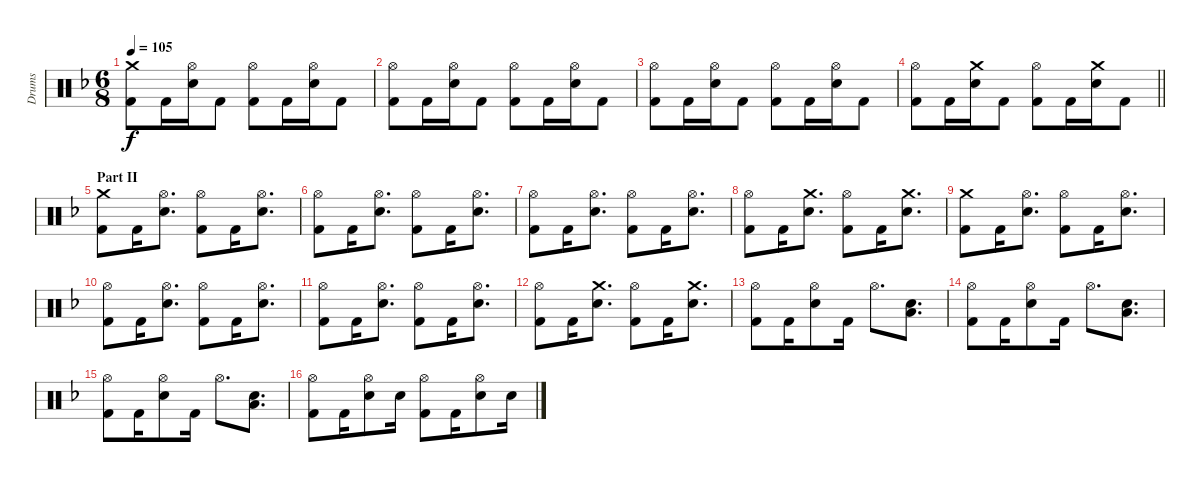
\track ("Drums" "Drums") {instrument percussion}
\staff {score}
\articulation defaults
\ts (6 8)
\tempo 105
\clef neutral
\ks dminor
("Crash medium (hit)" "Kick (hit) 2").8{dy f} "Kick (hit) 2".16 ("Electric Snare (hit)" "Hi-Hat (open)").16 "Kick (hit) 2".8 ("Kick (hit) 2" "Hi-Hat (open)").8 "Kick (hit) 2".16 ("Electric Snare (hit)" "Hi-Hat (open)").16 "Kick (hit) 2".8 |
("Kick (hit) 2" "Hi-Hat (open)").8 "Kick (hit) 2".16 ("Electric Snare (hit)" "Hi-Hat (open)").16 "Kick (hit) 2".8 ("Kick (hit) 2" "Hi-Hat (open)").8 "Kick (hit) 2".16 ("Electric Snare (hit)" "Hi-Hat (open)").16 "Kick (hit) 2".8 |
("Kick (hit) 2" "Hi-Hat (open)").8 "Kick (hit) 2".16 ("Electric Snare (hit)" "Hi-Hat (open)").16 "Kick (hit) 2".8 ("Kick (hit) 2" "Hi-Hat (open)").8 "Kick (hit) 2".16 ("Electric Snare (hit)" "Hi-Hat (open)").16 "Kick (hit) 2".8 |
\barLineRight lightlight
("Kick (hit) 2" "Hi-Hat (open)").8 "Kick (hit) 2".16 ("Electric Snare (hit)" "Crash medium (hit)").16 "Kick (hit) 2".8 ("Kick (hit) 2" "Hi-Hat (open)").8 "Kick (hit) 2".16 ("Electric Snare (hit)" "Crash medium (hit)").16 "Kick (hit) 2".8 |
\section ("" "Part II")
("Kick (hit) 2" "Crash medium (hit)").8 "Kick (hit) 2".16 ("Electric Snare (hit)" "Hi-Hat (open)").8{d} ("Kick (hit) 2" "Hi-Hat (open)").8 "Kick (hit) 2".16 ("Electric Snare (hit)" "Hi-Hat (open)").8{d} |
("Kick (hit) 2" "Hi-Hat (open)").8 "Kick (hit) 2".16 ("Electric Snare (hit)" "Hi-Hat (open)").8{d} ("Kick (hit) 2" "Hi-Hat (open)").8 "Kick (hit) 2".16 ("Electric Snare (hit)" "Hi-Hat (open)").8{d} |
("Kick (hit) 2" "Hi-Hat (open)").8 "Kick (hit) 2".16 ("Electric Snare (hit)" "Hi-Hat (open)").8{d} ("Kick (hit) 2" "Hi-Hat (open)").8 "Kick (hit) 2".16 ("Electric Snare (hit)" "Hi-Hat (open)").8{d} |
("Kick (hit) 2" "Hi-Hat (open)").8 "Kick (hit) 2".16 ("Electric Snare (hit)" "Crash medium (hit)").8{d} ("Kick (hit) 2" "Hi-Hat (open)").8 "Kick (hit) 2".16 ("Electric Snare (hit)" "Crash medium (hit)").8{d} |
("Kick (hit) 2" "Crash medium (hit)").8 "Kick (hit) 2".16 ("Electric Snare (hit)" "Hi-Hat (open)").8{d} ("Kick (hit) 2" "Hi-Hat (open)").8 "Kick (hit) 2".16 ("Electric Snare (hit)" "Hi-Hat (open)").8{d} |
("Kick (hit) 2" "Hi-Hat (open)").8 "Kick (hit) 2".16 ("Electric Snare (hit)" "Hi-Hat (open)").8{d} ("Kick (hit) 2" "Hi-Hat (open)").8 "Kick (hit) 2".16 ("Electric Snare (hit)" "Hi-Hat (open)").8{d} |
("Kick (hit) 2" "Hi-Hat (open)").8 "Kick (hit) 2".16 ("Electric Snare (hit)" "Hi-Hat (open)").8{d} ("Kick (hit) 2" "Hi-Hat (open)").8 "Kick (hit) 2".16 ("Electric Snare (hit)" "Hi-Hat (open)").8{d} |
("Kick (hit) 2" "Hi-Hat (open)").8 "Kick (hit) 2".16 ("Electric Snare (hit)" "Crash medium (hit)").8{d} ("Kick (hit) 2" "Hi-Hat (open)").8 "Kick (hit) 2".16 ("Electric Snare (hit)" "Crash medium (hit)").8{d} |
("Kick (hit) 2" "Hi-Hat (open)").8 "Kick (hit) 2".16 ("Electric Snare (hit)" "Hi-Hat (open)").8 "Kick (hit) 2".16 "Hi-Hat (open)".8{d} ("Electric Snare (hit)" "Low Floor Tom (hit)").8{d} |
("Kick (hit) 2" "Hi-Hat (open)").8 "Kick (hit) 2".16 ("Electric Snare (hit)" "Hi-Hat (open)").8 "Kick (hit) 2".16 "Hi-Hat (open)".8{d} ("Electric Snare (hit)" "Low Floor Tom (hit)").8{d} |
("Kick (hit) 2" "Hi-Hat (open)").8 "Kick (hit) 2".16 ("Electric Snare (hit)" "Hi-Hat (open)").8 "Kick (hit) 2".16 "Hi-Hat (open)".8{d} ("Electric Snare (hit)" "Low Floor Tom (hit)").8{d} |
("Kick (hit) 2" "Hi-Hat (open)").8 "Kick (hit) 2".16 ("Electric Snare (hit)" "Hi-Hat (open)").8 "Electric Snare (hit)".16 ("Kick (hit) 2" "Hi-Hat (open)").8 "Kick (hit) 2".16 ("Electric Snare (hit)" "Hi-Hat (open)").8 "Electric Snare (hit)".16
